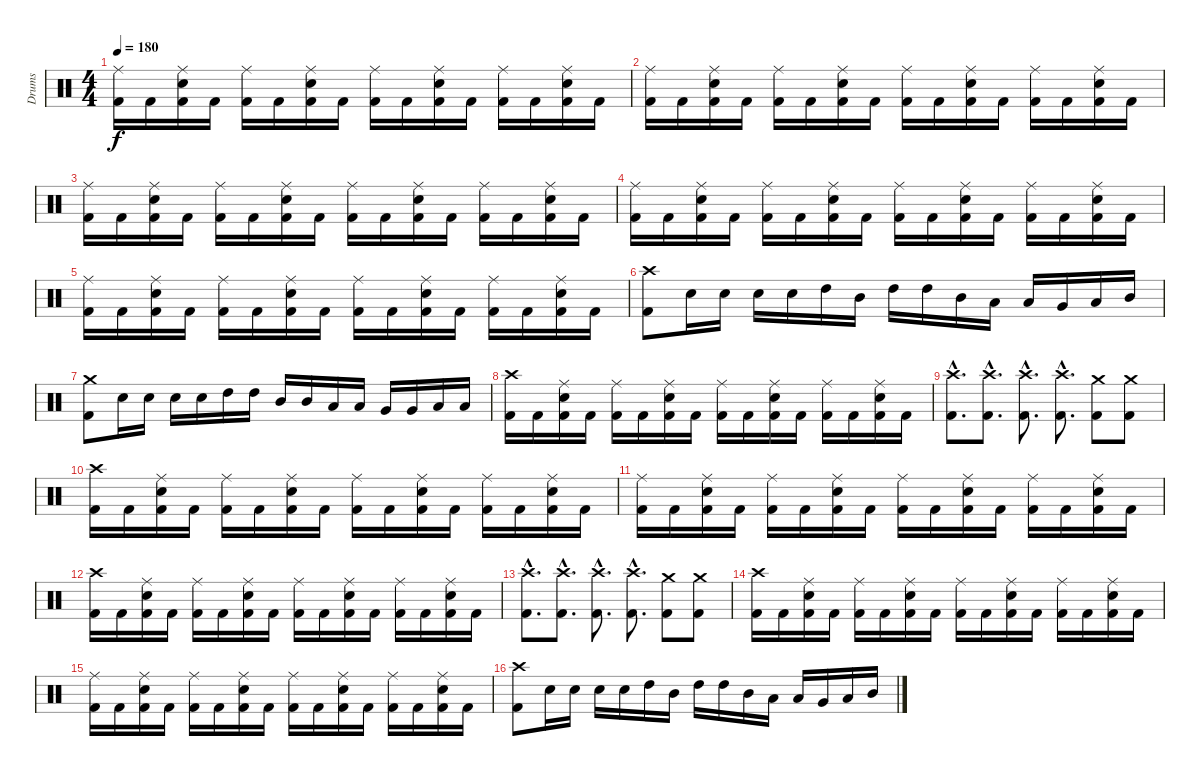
\track ("Drums" "Drums") {instrument percussion}
\staff {score}
\articulation defaults
\ts (4 4)
\tempo 180
\clef neutral
\ks c
("Ride (middle)" "Kick (hit) 2").16{dy f} "Kick (hit) 2".16 ("Ride (middle)" "Electric Snare (hit)" "Kick (hit) 2").16 "Kick (hit) 2".16 ("Ride (middle)" "Kick (hit) 2").16 "Kick (hit) 2".16 ("Ride (middle)" "Electric Snare (hit)" "Kick (hit) 2").16 "Kick (hit) 2".16 ("Ride (middle)" "Kick (hit) 2").16 "Kick (hit) 2".16 ("Ride (middle)" "Electric Snare (hit)" "Kick (hit) 2").16 "Kick (hit) 2".16 ("Ride (middle)" "Kick (hit) 2").16 "Kick (hit) 2".16 ("Ride (middle)" "Electric Snare (hit)" "Kick (hit) 2").16 "Kick (hit) 2".16 |
("Ride (middle)" "Kick (hit) 2").16 "Kick (hit) 2".16 ("Ride (middle)" "Electric Snare (hit)" "Kick (hit) 2").16 "Kick (hit) 2".16 ("Ride (middle)" "Kick (hit) 2").16 "Kick (hit) 2".16 ("Ride (middle)" "Electric Snare (hit)" "Kick (hit) 2").16 "Kick (hit) 2".16 ("Ride (middle)" "Kick (hit) 2").16 "Kick (hit) 2".16 ("Ride (middle)" "Electric Snare (hit)" "Kick (hit) 2").16 "Kick (hit) 2".16 ("Ride (middle)" "Kick (hit) 2").16 "Kick (hit) 2".16 ("Ride (middle)" "Electric Snare (hit)" "Kick (hit) 2").16 "Kick (hit) 2".16 |
("Ride (middle)" "Kick (hit) 2").16 "Kick (hit) 2".16 ("Ride (middle)" "Electric Snare (hit)" "Kick (hit) 2").16 "Kick (hit) 2".16 ("Ride (middle)" "Kick (hit) 2").16 "Kick (hit) 2".16 ("Ride (middle)" "Electric Snare (hit)" "Kick (hit) 2").16 "Kick (hit) 2".16 ("Ride (middle)" "Kick (hit) 2").16 "Kick (hit) 2".16 ("Ride (middle)" "Electric Snare (hit)" "Kick (hit) 2").16 "Kick (hit) 2".16 ("Ride (middle)" "Kick (hit) 2").16 "Kick (hit) 2".16 ("Ride (middle)" "Electric Snare (hit)" "Kick (hit) 2").16 "Kick (hit) 2".16 |
("Ride (middle)" "Kick (hit) 2").16 "Kick (hit) 2".16 ("Ride (middle)" "Electric Snare (hit)" "Kick (hit) 2").16 "Kick (hit) 2".16 ("Ride (middle)" "Kick (hit) 2").16 "Kick (hit) 2".16 ("Ride (middle)" "Electric Snare (hit)" "Kick (hit) 2").16 "Kick (hit) 2".16 ("Ride (middle)" "Kick (hit) 2").16 "Kick (hit) 2".16 ("Ride (middle)" "Electric Snare (hit)" "Kick (hit) 2").16 "Kick (hit) 2".16 ("Ride (middle)" "Kick (hit) 2").16 "Kick (hit) 2".16 ("Ride (middle)" "Electric Snare (hit)" "Kick (hit) 2").16 "Kick (hit) 2".16 |
("Ride (middle)" "Kick (hit) 2").16 "Kick (hit) 2".16 ("Ride (middle)" "Electric Snare (hit)" "Kick (hit) 2").16 "Kick (hit) 2".16 ("Ride (middle)" "Kick (hit) 2").16 "Kick (hit) 2".16 ("Ride (middle)" "Electric Snare (hit)" "Kick (hit) 2").16 "Kick (hit) 2".16 ("Ride (middle)" "Kick (hit) 2").16 "Kick (hit) 2".16 ("Ride (middle)" "Electric Snare (hit)" "Kick (hit) 2").16 "Kick (hit) 2".16 ("Ride (middle)" "Kick (hit) 2").16 "Kick (hit) 2".16 ("Ride (middle)" "Electric Snare (hit)" "Kick (hit) 2").16 "Kick (hit) 2".16 |
("Crash high (hit)" "Kick (hit) 2").8 "Electric Snare (hit)".16 "Electric Snare (hit)".16 "Electric Snare (hit)".16 "Electric Snare (hit)".16 "High Tom (hit)".16 "Mid Tom (hit)".16 "High Tom (hit)".16 "High Tom (hit)".16 "Mid Tom (hit)".16 "Low Tom (hit)".16 "Low Tom (hit)".16 "Very Low Tom (hit)".16 "Low Tom (hit)".16 "Mid Tom (hit)".16 |
("Crash medium (hit)" "Kick (hit) 2").8 "Electric Snare (hit)".16 "Electric Snare (hit)".16 "Electric Snare (hit)".16 "Electric Snare (hit)".16 "High Tom (hit)".16 "High Tom (hit)".16 "Mid Tom (hit)".16 "Mid Tom (hit)".16 "Low Tom (hit)".16 "Low Tom (hit)".16 "Very Low Tom (hit)".16 "Very Low Tom (hit)".16 "Low Floor Tom (hit)".16 "Low Floor Tom (hit)".16 |
("Crash high (hit)" "Kick (hit) 2").16 "Kick (hit) 2".16 ("Ride (middle)" "Electric Snare (hit)" "Kick (hit) 2").16 "Kick (hit) 2".16 ("Ride (middle)" "Kick (hit) 2").16 "Kick (hit) 2".16 ("Ride (middle)" "Electric Snare (hit)" "Kick (hit) 2").16 "Kick (hit) 2".16 ("Ride (middle)" "Kick (hit) 2").16 "Kick (hit) 2".16 ("Ride (middle)" "Electric Snare (hit)" "Kick (hit) 2").16 "Kick (hit) 2".16 ("Ride (middle)" "Kick (hit) 2").16 "Kick (hit) 2".16 ("Ride (middle)" "Electric Snare (hit)" "Kick (hit) 2").16 "Kick (hit) 2".16 |
("Crash high (hit)"{hac} "Kick (hit) 2"{hac}).8{d} ("Crash high (hit)"{hac} "Kick (hit) 2"{hac}).8{d} ("Crash high (hit)"{hac} "Kick (hit) 2"{hac}).8{d} ("Crash high (hit)"{hac} "Kick (hit) 2"{hac}).8{d} ("Crash medium (hit)" "Kick (hit) 2").8 ("Crash medium (hit)" "Kick (hit) 2").8 |
("Crash high (hit)" "Kick (hit) 2").16 "Kick (hit) 2".16 ("Ride (middle)" "Electric Snare (hit)" "Kick (hit) 2").16 "Kick (hit) 2".16 ("Ride (middle)" "Kick (hit) 2").16 "Kick (hit) 2".16 ("Ride (middle)" "Electric Snare (hit)" "Kick (hit) 2").16 "Kick (hit) 2".16 ("Ride (middle)" "Kick (hit) 2").16 "Kick (hit) 2".16 ("Ride (middle)" "Electric Snare (hit)" "Kick (hit) 2").16 "Kick (hit) 2".16 ("Ride (middle)" "Kick (hit) 2").16 "Kick (hit) 2".16 ("Ride (middle)" "Electric Snare (hit)" "Kick (hit) 2").16 "Kick (hit) 2".16 |
("Ride (middle)" "Kick (hit) 2").16 "Kick (hit) 2".16 ("Ride (middle)" "Electric Snare (hit)" "Kick (hit) 2").16 "Kick (hit) 2".16 ("Ride (middle)" "Kick (hit) 2").16 "Kick (hit) 2".16 ("Ride (middle)" "Electric Snare (hit)" "Kick (hit) 2").16 "Kick (hit) 2".16 ("Ride (middle)" "Kick (hit) 2").16 "Kick (hit) 2".16 ("Ride (middle)" "Electric Snare (hit)" "Kick (hit) 2").16 "Kick (hit) 2".16 ("Ride (middle)" "Kick (hit) 2").16 "Kick (hit) 2".16 ("Ride (middle)" "Electric Snare (hit)" "Kick (hit) 2").16 "Kick (hit) 2".16 |
("Crash high (hit)" "Kick (hit) 2").16 "Kick (hit) 2".16 ("Ride (middle)" "Electric Snare (hit)" "Kick (hit) 2").16 "Kick (hit) 2".16 ("Ride (middle)" "Kick (hit) 2").16 "Kick (hit) 2".16 ("Ride (middle)" "Electric Snare (hit)" "Kick (hit) 2").16 "Kick (hit) 2".16 ("Ride (middle)" "Kick (hit) 2").16 "Kick (hit) 2".16 ("Ride (middle)" "Electric Snare (hit)" "Kick (hit) 2").16 "Kick (hit) 2".16 ("Ride (middle)" "Kick (hit) 2").16 "Kick (hit) 2".16 ("Ride (middle)" "Electric Snare (hit)" "Kick (hit) 2").16 "Kick (hit) 2".16 |
("Crash high (hit)"{hac} "Kick (hit) 2"{hac}).8{d} ("Crash high (hit)"{hac} "Kick (hit) 2"{hac}).8{d} ("Crash high (hit)"{hac} "Kick (hit) 2"{hac}).8{d} ("Crash high (hit)"{hac} "Kick (hit) 2"{hac}).8{d} ("Crash medium (hit)" "Kick (hit) 2").8 ("Crash medium (hit)" "Kick (hit) 2").8 |
("Crash high (hit)" "Kick (hit) 2").16 "Kick (hit) 2".16 ("Ride (middle)" "Electric Snare (hit)" "Kick (hit) 2").16 "Kick (hit) 2".16 ("Ride (middle)" "Kick (hit) 2").16 "Kick (hit) 2".16 ("Ride (middle)" "Electric Snare (hit)" "Kick (hit) 2").16 "Kick (hit) 2".16 ("Ride (middle)" "Kick (hit) 2").16 "Kick (hit) 2".16 ("Ride (middle)" "Electric Snare (hit)" "Kick (hit) 2").16 "Kick (hit) 2".16 ("Ride (middle)" "Kick (hit) 2").16 "Kick (hit) 2".16 ("Ride (middle)" "Electric Snare (hit)" "Kick (hit) 2").16 "Kick (hit) 2".16 |
("Ride (middle)" "Kick (hit) 2").16 "Kick (hit) 2".16 ("Ride (middle)" "Electric Snare (hit)" "Kick (hit) 2").16 "Kick (hit) 2".16 ("Ride (middle)" "Kick (hit) 2").16 "Kick (hit) 2".16 ("Ride (middle)" "Electric Snare (hit)" "Kick (hit) 2").16 "Kick (hit) 2".16 ("Ride (middle)" "Kick (hit) 2").16 "Kick (hit) 2".16 ("Ride (middle)" "Electric Snare (hit)" "Kick (hit) 2").16 "Kick (hit) 2".16 ("Ride (middle)" "Kick (hit) 2").16 "Kick (hit) 2".16 ("Ride (middle)" "Electric Snare (hit)" "Kick (hit) 2").16 "Kick (hit) 2".16 |
("Crash high (hit)" "Kick (hit) 2").8 "Electric Snare (hit)".16 "Electric Snare (hit)".16 "Electric Snare (hit)".16 "Electric Snare (hit)".16 "High Tom (hit)".16 "Mid Tom (hit)".16 "High Tom (hit)".16 "High Tom (hit)".16 "Mid Tom (hit)".16 "Low Tom (hit)".16 "Low Tom (hit)".16 "Very Low Tom (hit)".16 "Low Tom (hit)".16 "Mid Tom (hit)".16
